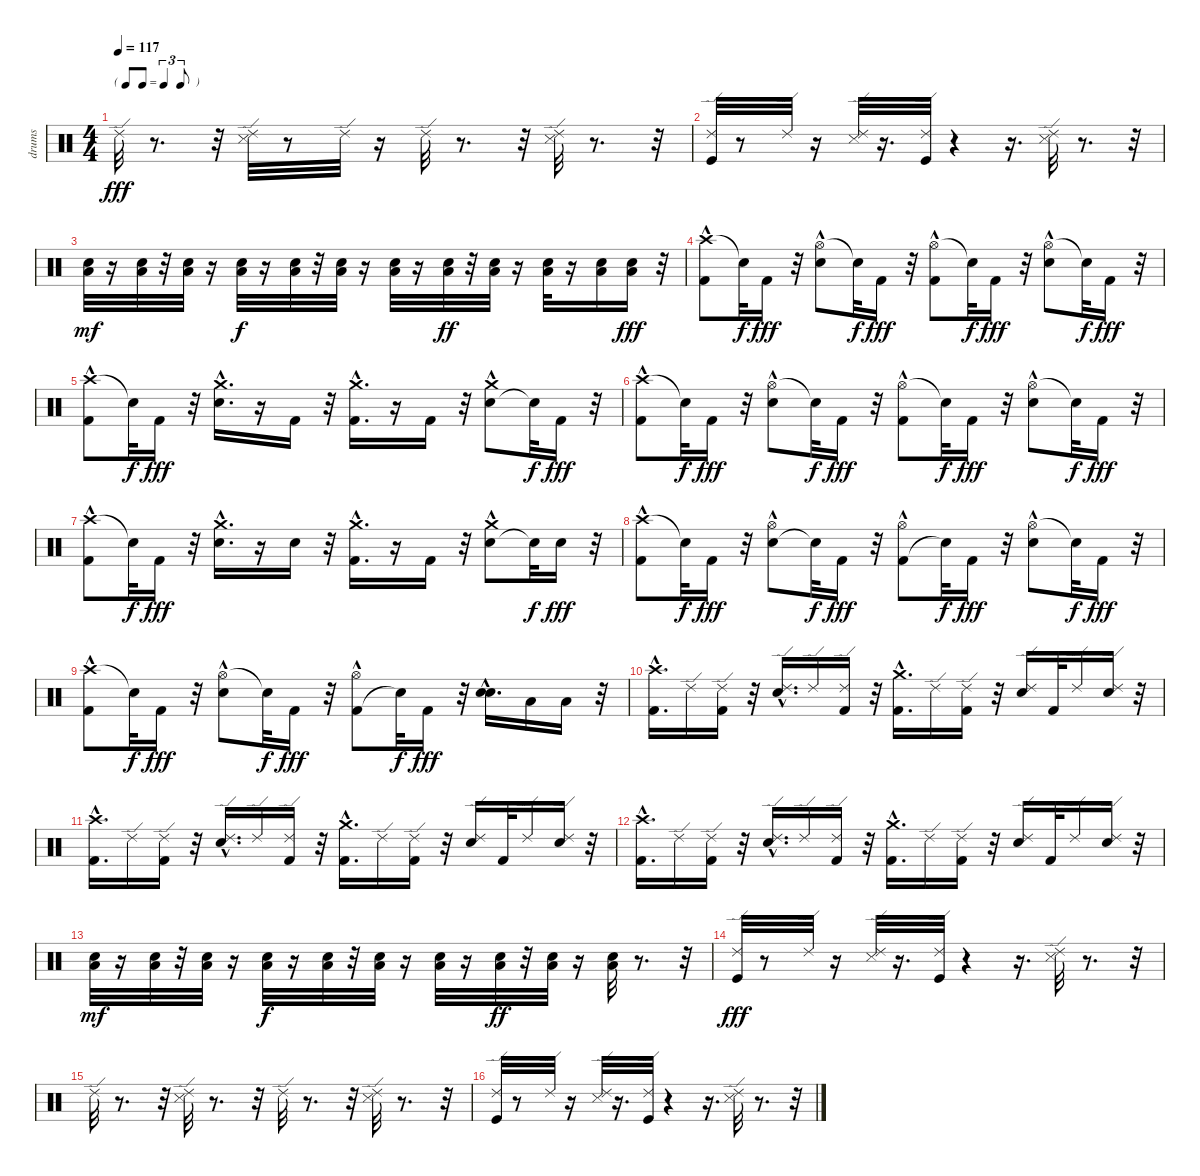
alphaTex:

\track ("drums" "drums") {instrument percussion}
\staff {score}
\articulation defaults
\ts (4 4)
\tf triplet8th
\tempo 117
\clef neutral
\ks c "Ride (edge) 2".32{dy fff}
r.8{d} r.32 ("Snare (side stick) 3" "Ride (edge) 2").32 r.8 "Ride (edge) 2".32 r.16 "Ride (edge) 2".32 r.8{d} r.32 ("Snare (side stick) 3" "Ride (edge) 2").32 r.8{d} r.32 |
("Kick (hit)" "Ride (edge) 2").32 r.8 "Ride (edge) 2".32 r.16 ("Snare (side stick) 3" "Ride (edge) 2").32 r.16{d} ("Kick (hit)" "Ride (edge) 2").32 r.4 r.16{d} ("Snare (side stick) 3" "Ride (edge) 2").32 r.8{d} r.32 |
("Low Floor Tom (hit)" "Electric Snare (hit)").32{dy mf} r.16 ("Low Floor Tom (hit)" "Electric Snare (hit)").32 r.32 ("Low Floor Tom (hit)" "Electric Snare (hit)").32 r.16 ("Low Floor Tom (hit)" "Electric Snare (hit)").32{dy f} r.16 ("Low Floor Tom (hit)" "Electric Snare (hit)").32 r.32 ("Low Floor Tom (hit)" "Electric Snare (hit)").32 r.16 ("Low Floor Tom (hit)" "Electric Snare (hit)").32 r.16 ("Low Floor Tom (hit)" "Electric Snare (hit)").32{dy ff} r.32 ("Low Floor Tom (hit)" "Electric Snare (hit)").32 r.16 ("Low Floor Tom (hit)" "Electric Snare (hit)").32 r.16 ("Low Floor Tom (hit)" "Electric Snare (hit)").16 ("Electric Snare (hit)" "Low Floor Tom (hit)").16{dy fff} r.32 |
("Crash high (hit)" "Kick (hit) 2"{hac}).8 "Snare (hit)"{t}.32{dy f} "Kick (hit) 2".16{dy fff} r.32 ("Hi-Hat (open)" "Electric Snare (hit)"{hac}).8 "Snare (hit)"{t}.32{dy f} "Kick (hit) 2".16{dy fff} r.32 ("Hi-Hat (open)" "Kick (hit) 2"{hac}).8 "Snare (hit)"{t}.32{dy f} "Kick (hit) 2".16{dy fff} r.32 ("Hi-Hat (open)" "Electric Snare (hit)"{hac}).8 "Snare (hit)"{t}.32{dy f} "Kick (hit) 2".16{dy fff} r.32 |
("Crash high (hit)" "Kick (hit) 2"{hac}).8 "Snare (hit)"{t}.32{dy f} "Kick (hit) 2".16{dy fff} r.32 ("Electric Snare (hit)"{hac} "Crash medium (hit)"{hac}).16{d} r.16 "Kick (hit) 2".16 r.32 ("Kick (hit) 2"{hac} "Crash medium (hit)"{hac}).16{d} r.16 "Kick (hit) 2".16 r.32 ("Electric Snare (hit)"{hac} "Crash medium (hit)").8 "Snare (hit)"{t}.32{dy f} "Kick (hit) 2".16{dy fff} r.32 |
("Crash high (hit)" "Kick (hit) 2"{hac}).8 "Snare (hit)"{t}.32{dy f} "Kick (hit) 2".16{dy fff} r.32 ("Hi-Hat (open)" "Electric Snare (hit)"{hac}).8 "Snare (hit)"{t}.32{dy f} "Kick (hit) 2".16{dy fff} r.32 ("Hi-Hat (open)" "Kick (hit) 2"{hac}).8 "Snare (hit)"{t}.32{dy f} "Kick (hit) 2".16{dy fff} r.32 ("Hi-Hat (open)" "Electric Snare (hit)"{hac}).8 "Snare (hit)"{t}.32{dy f} "Kick (hit) 2".16{dy fff} r.32 |
("Crash high (hit)" "Kick (hit) 2"{hac}).8 "Snare (hit)"{t}.32{dy f} "Kick (hit) 2".16{dy fff} r.32 ("Electric Snare (hit)"{hac} "Crash medium (hit)"{hac}).16{d} r.16 "Electric Snare (hit)".16 r.32 ("Kick (hit) 2"{hac} "Crash medium (hit)"{hac}).16{d} r.16 "Kick (hit) 2".16 r.32 ("Electric Snare (hit)"{hac} "Crash medium (hit)").8 "Snare (hit)"{t}.32{dy f} "Electric Snare (hit)".16{dy fff} r.32 |
("Crash high (hit)" "Kick (hit) 2"{hac}).8 "Snare (hit)"{t}.32{dy f} "Kick (hit) 2".16{dy fff} r.32 ("Electric Snare (hit)"{hac} "Hi-Hat (open)").8 "Snare (hit)"{t}.32{dy f} "Kick (hit) 2".16{dy fff} r.32 ("Kick (hit) 2"{hac} "Hi-Hat (open)").8 "Snare (hit)"{t}.32{dy f} "Kick (hit) 2".16{dy fff} r.32 ("Hi-Hat (open)" "Electric Snare (hit)"{hac}).8 "Snare (hit)"{t}.32{dy f} "Kick (hit) 2".16{dy fff} r.32 |
("Crash high (hit)" "Kick (hit) 2"{hac}).8 "Snare (hit)"{t}.32{dy f} "Kick (hit) 2".16{dy fff} r.32 ("Hi-Hat (open)" "Electric Snare (hit)"{hac}).8 "Snare (hit)"{t}.32{dy f} "Kick (hit) 2".16{dy fff} r.32 ("Kick (hit) 2"{hac} "Hi-Hat (open)").8 "Snare (hit)"{t}.32{dy f} "Kick (hit) 2".16{dy fff} r.32 ("Electric Snare (hit)"{hac} "Electric Snare (hit)"{hac}).16{d} "Low Floor Tom (hit)".16 "Low Floor Tom (hit)".16 r.32 |
("Crash high (hit)"{hac} "Kick (hit) 2"{hac}).16{d} "Ride (edge) 2".16 ("Ride (edge) 2" "Kick (hit) 2").16 r.32 ("Ride (edge) 2" "Electric Snare (hit)"{hac}).16{d} "Ride (edge) 2".16 ("Ride (edge) 2" "Kick (hit) 2").16 r.32 ("Crash medium (hit)"{hac} "Kick (hit) 2"{hac}).16{d} "Ride (edge) 2".16 ("Ride (edge) 2" "Kick (hit) 2").16 r.32 ("Ride (edge) 2" "Electric Snare (hit)").16 "Kick (hit) 2".32 "Ride (edge) 2".16 ("Ride (edge) 2" "Electric Snare (hit)").16 r.32 |
("Crash high (hit)"{hac} "Kick (hit) 2"{hac}).16{d} "Ride (edge) 2".16 ("Ride (edge) 2" "Kick (hit) 2").16 r.32 ("Ride (edge) 2" "Electric Snare (hit)"{hac}).16{d} "Ride (edge) 2".16 ("Ride (edge) 2" "Kick (hit) 2").16 r.32 ("Crash medium (hit)"{hac} "Kick (hit) 2"{hac}).16{d} "Ride (edge) 2".16 ("Ride (edge) 2" "Kick (hit) 2").16 r.32 ("Ride (edge) 2" "Electric Snare (hit)").16 "Kick (hit) 2".32 "Ride (edge) 2".16 ("Ride (edge) 2" "Electric Snare (hit)").16 r.32 |
("Crash high (hit)"{hac} "Kick (hit) 2"{hac}).16{d} "Ride (edge) 2".16 ("Ride (edge) 2" "Kick (hit) 2").16 r.32 ("Ride (edge) 2" "Electric Snare (hit)"{hac}).16{d} "Ride (edge) 2".16 ("Ride (edge) 2" "Kick (hit) 2").16 r.32 ("Crash medium (hit)"{hac} "Kick (hit) 2"{hac}).16{d} "Ride (edge) 2".16 ("Ride (edge) 2" "Kick (hit) 2").16 r.32 ("Ride (edge) 2" "Electric Snare (hit)").16 "Kick (hit) 2".32 "Ride (edge) 2".16 ("Ride (edge) 2" "Electric Snare (hit)").16 r.32 |
("Low Floor Tom (hit)" "Electric Snare (hit)").32{dy mf} r.16 ("Low Floor Tom (hit)" "Electric Snare (hit)").32 r.32 ("Low Floor Tom (hit)" "Electric Snare (hit)").32 r.16 ("Low Floor Tom (hit)" "Electric Snare (hit)").32{dy f} r.16 ("Low Floor Tom (hit)" "Electric Snare (hit)").32 r.32 ("Low Floor Tom (hit)" "Electric Snare (hit)").32 r.16 ("Low Floor Tom (hit)" "Electric Snare (hit)").32 r.16 ("Low Floor Tom (hit)" "Electric Snare (hit)").32{dy ff} r.32 ("Low Floor Tom (hit)" "Electric Snare (hit)").32 r.16 ("Low Floor Tom (hit)" "Electric Snare (hit)").32 r.8{d} r.32 |
("Kick (hit)" "Ride (edge) 2").32{dy fff} r.8 "Ride (edge) 2".32 r.16 ("Snare (side stick) 3" "Ride (edge) 2").32 r.16{d} ("Kick (hit)" "Ride (edge) 2").32 r.4 r.16{d} ("Snare (side stick) 3" "Ride (edge) 2").32 r.8{d} r.32 |
"Ride (edge) 2".32 r.8{d} r.32 ("Snare (side stick) 3" "Ride (edge) 2").32 r.8{d} r.32 "Ride (edge) 2".32 r.8{d} r.32 ("Snare (side stick) 3" "Ride (edge) 2").32 r.8{d} r.32 |
("Kick (hit)" "Ride (edge) 2").32 r.8 "Ride (edge) 2".32 r.16 ("Snare (side stick) 3" "Ride (edge) 2").32 r.16{d} ("Kick (hit)" "Ride (edge) 2").32 r.4 r.16{d} ("Snare (side stick) 3" "Ride (edge) 2").32 r.8{d} r.32
